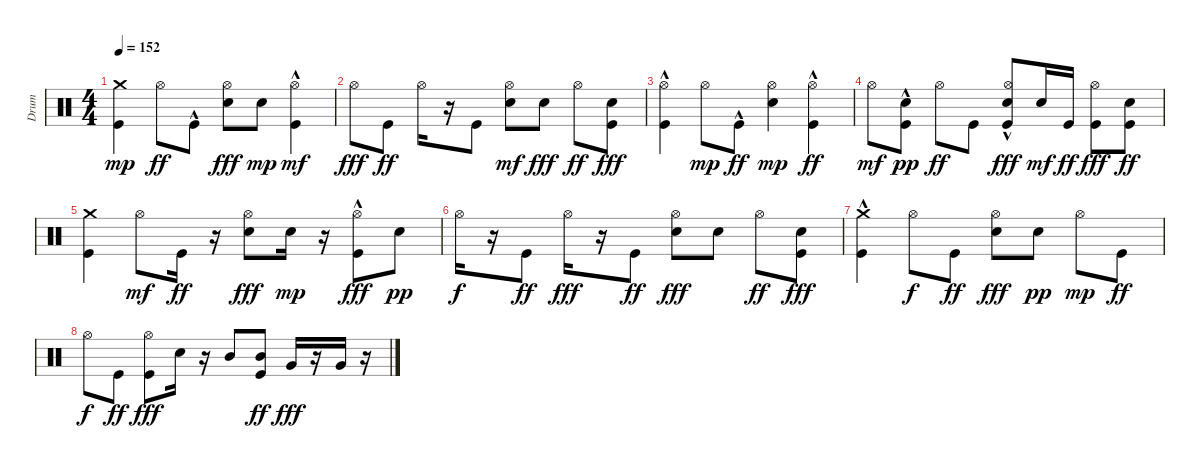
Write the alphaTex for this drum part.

\track ("Drum" "Drum") {instrument percussion}
\staff {score}
\articulation defaults
\ts (4 4)
\tempo 152
\clef neutral
\ks c
("Kick (hit)" "Crash medium (hit)").4{dy mp} "Hi-Hat (open)".8{dy ff} "Kick (hit)"{hac}.8 ("Electric Snare (hit)" "Hi-Hat (open)").8{dy fff} "Electric Snare (hit)".8{dy mp} ("Kick (hit)"{hac} "Hi-Hat (open)").4{dy mf} |
"Hi-Hat (open)".8{dy fff} "Kick (hit)".8{dy ff} "Hi-Hat (open)".16 r.16 "Kick (hit)".8 ("Electric Snare (hit)" "Hi-Hat (open)").8{dy mf} "Electric Snare (hit)".8{dy fff} "Hi-Hat (open)".8{dy ff} ("Kick (hit)" "Electric Snare (hit)").8{dy fff} |
("Kick (hit)"{hac} "Hi-Hat (open)").4 "Hi-Hat (open)".8{dy mp} "Kick (hit)"{hac}.8{dy ff} ("Electric Snare (hit)" "Hi-Hat (open)").4{dy mp} ("Kick (hit)"{hac} "Hi-Hat (open)").4{dy ff} |
"Hi-Hat (open)".8{dy mf} ("Kick (hit)" "Electric Snare (hit)"{hac}).8{dy pp} "Hi-Hat (open)".8{dy ff} "Kick (hit)".8 ("Kick (hit)"{hac} "Electric Snare (hit)" "Hi-Hat (open)").8{dy fff} "Electric Snare (hit)".16{dy mf} "Kick (hit)".16{dy ff} ("Kick (hit)" "Hi-Hat (open)").8{dy fff} ("Kick (hit)" "Electric Snare (hit)").8{dy ff} |
("Kick (hit)" "Crash medium (hit)").4 "Hi-Hat (open)".8{dy mf} "Kick (hit)".16{dy ff} r.16 ("Electric Snare (hit)" "Hi-Hat (open)").8{dy fff} "Electric Snare (hit)".16{dy mp} r.16 ("Kick (hit)"{hac} "Hi-Hat (open)").8{dy fff} "Electric Snare (hit)".8{dy pp} |
"Hi-Hat (open)".16{dy f} r.16 "Kick (hit)".8{dy ff} "Hi-Hat (open)".16{dy fff} r.16 "Kick (hit)".8{dy ff} ("Electric Snare (hit)" "Hi-Hat (open)").8{dy fff} "Electric Snare (hit)".8 "Hi-Hat (open)".8{dy ff} ("Kick (hit)" "Electric Snare (hit)").8{dy fff} |
("Kick (hit)"{hac} "Crash medium (hit)").4 "Hi-Hat (open)".8{dy f} "Kick (hit)".8{dy ff} ("Electric Snare (hit)" "Hi-Hat (open)").8{dy fff} "Electric Snare (hit)".8{dy pp} "Hi-Hat (open)".8{dy mp} "Kick (hit)".8{dy ff} |
"Hi-Hat (open)".8{dy f} "Kick (hit)".8{dy ff} ("Kick (hit)" "Hi-Hat (open)").8{dy fff} "Electric Snare (hit)".16 r.16 "Mid Tom (hit)".8 ("Kick (hit)" "Mid Tom (hit)").8{dy ff} "Very Low Tom (hit)".16{dy fff} r.16 "Very Low Tom (hit)".16 r.16
